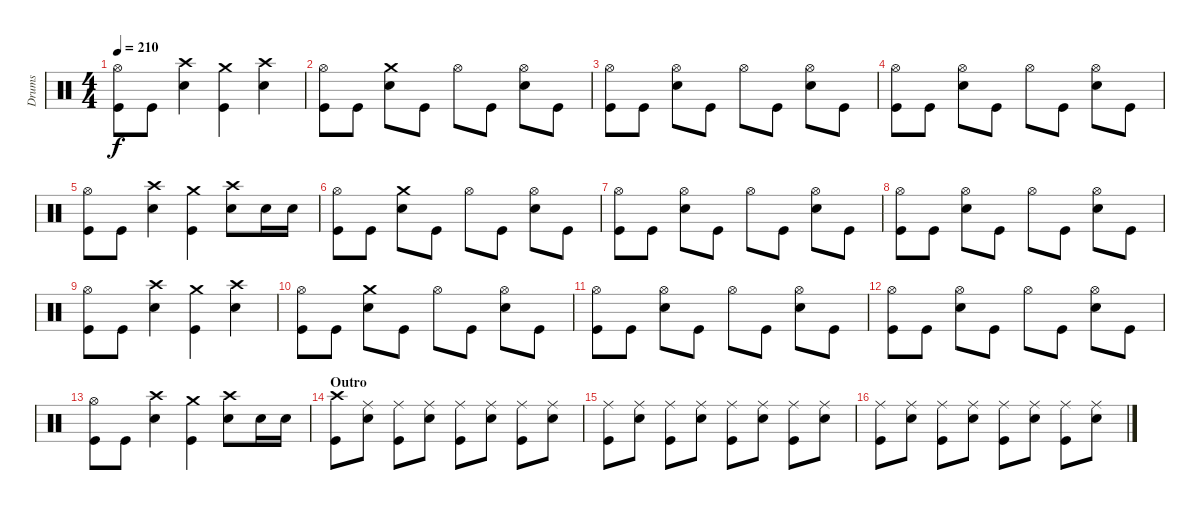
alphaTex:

\track ("Drums" "Drums") {instrument percussion}
\staff {score}
\articulation defaults
\ts (4 4)
\tempo 210
\clef neutral
\ks c
("Hi-Hat (open)" "Kick (hit)").8{dy f} "Kick (hit)".8 ("Crash high (hit)" "Electric Snare (hit)").4 ("Crash medium (hit)" "Kick (hit)").4 ("Crash high (hit)" "Electric Snare (hit)").4 |
("Hi-Hat (open)" "Kick (hit)").8 "Kick (hit)".8 ("Crash medium (hit)" "Electric Snare (hit)").8 "Kick (hit)".8 "Hi-Hat (open)".8 "Kick (hit)".8 ("Hi-Hat (open)" "Electric Snare (hit)").8 "Kick (hit)".8 |
("Hi-Hat (open)" "Kick (hit)").8 "Kick (hit)".8 ("Hi-Hat (open)" "Electric Snare (hit)").8 "Kick (hit)".8 "Hi-Hat (open)".8 "Kick (hit)".8 ("Hi-Hat (open)" "Electric Snare (hit)").8 "Kick (hit)".8 |
("Hi-Hat (open)" "Kick (hit)").8 "Kick (hit)".8 ("Hi-Hat (open)" "Electric Snare (hit)").8 "Kick (hit)".8 "Hi-Hat (open)".8 "Kick (hit)".8 ("Hi-Hat (open)" "Electric Snare (hit)").8 "Kick (hit)".8 |
("Hi-Hat (open)" "Kick (hit)").8 "Kick (hit)".8 ("Crash high (hit)" "Electric Snare (hit)").4 ("Crash medium (hit)" "Kick (hit)").4 ("Crash high (hit)" "Electric Snare (hit)").8 "Electric Snare (hit)".16 "Electric Snare (hit)".16 |
("Hi-Hat (open)" "Kick (hit)").8 "Kick (hit)".8 ("Crash medium (hit)" "Electric Snare (hit)").8 "Kick (hit)".8 "Hi-Hat (open)".8 "Kick (hit)".8 ("Hi-Hat (open)" "Electric Snare (hit)").8 "Kick (hit)".8 |
("Hi-Hat (open)" "Kick (hit)").8 "Kick (hit)".8 ("Hi-Hat (open)" "Electric Snare (hit)").8 "Kick (hit)".8 "Hi-Hat (open)".8 "Kick (hit)".8 ("Hi-Hat (open)" "Electric Snare (hit)").8 "Kick (hit)".8 |
("Hi-Hat (open)" "Kick (hit)").8 "Kick (hit)".8 ("Hi-Hat (open)" "Electric Snare (hit)").8 "Kick (hit)".8 "Hi-Hat (open)".8 "Kick (hit)".8 ("Hi-Hat (open)" "Electric Snare (hit)").8 "Kick (hit)".8 |
("Hi-Hat (open)" "Kick (hit)").8 "Kick (hit)".8 ("Crash high (hit)" "Electric Snare (hit)").4 ("Crash medium (hit)" "Kick (hit)").4 ("Crash high (hit)" "Electric Snare (hit)").4 |
("Hi-Hat (open)" "Kick (hit)").8 "Kick (hit)".8 ("Crash medium (hit)" "Electric Snare (hit)").8 "Kick (hit)".8 "Hi-Hat (open)".8 "Kick (hit)".8 ("Hi-Hat (open)" "Electric Snare (hit)").8 "Kick (hit)".8 |
("Hi-Hat (open)" "Kick (hit)").8 "Kick (hit)".8 ("Hi-Hat (open)" "Electric Snare (hit)").8 "Kick (hit)".8 "Hi-Hat (open)".8 "Kick (hit)".8 ("Hi-Hat (open)" "Electric Snare (hit)").8 "Kick (hit)".8 |
("Hi-Hat (open)" "Kick (hit)").8 "Kick (hit)".8 ("Hi-Hat (open)" "Electric Snare (hit)").8 "Kick (hit)".8 "Hi-Hat (open)".8 "Kick (hit)".8 ("Hi-Hat (open)" "Electric Snare (hit)").8 "Kick (hit)".8 |
("Hi-Hat (open)" "Kick (hit)").8 "Kick (hit)".8 ("Crash high (hit)" "Electric Snare (hit)").4 ("Crash medium (hit)" "Kick (hit)").4 ("Crash high (hit)" "Electric Snare (hit)").8 "Electric Snare (hit)".16 "Electric Snare (hit)".16 |
\section ("" "Outro")
("Crash high (hit)" "Kick (hit)").8 ("Ride (middle)" "Electric Snare (hit)").8 ("Ride (middle)" "Kick (hit)").8 ("Ride (middle)" "Electric Snare (hit)").8 ("Ride (middle)" "Kick (hit)").8 ("Ride (middle)" "Electric Snare (hit)").8 ("Ride (middle)" "Kick (hit)").8 ("Ride (middle)" "Electric Snare (hit)").8 |
("Ride (middle)" "Kick (hit)").8 ("Ride (middle)" "Electric Snare (hit)").8 ("Ride (middle)" "Kick (hit)").8 ("Ride (middle)" "Electric Snare (hit)").8 ("Ride (middle)" "Kick (hit)").8 ("Ride (middle)" "Electric Snare (hit)").8 ("Ride (middle)" "Kick (hit)").8 ("Ride (middle)" "Electric Snare (hit)").8 |
("Ride (middle)" "Kick (hit)").8 ("Ride (middle)" "Electric Snare (hit)").8 ("Ride (middle)" "Kick (hit)").8 ("Ride (middle)" "Electric Snare (hit)").8 ("Ride (middle)" "Kick (hit)").8 ("Ride (middle)" "Electric Snare (hit)").8 ("Ride (middle)" "Kick (hit)").8 ("Ride (middle)" "Electric Snare (hit)").8
